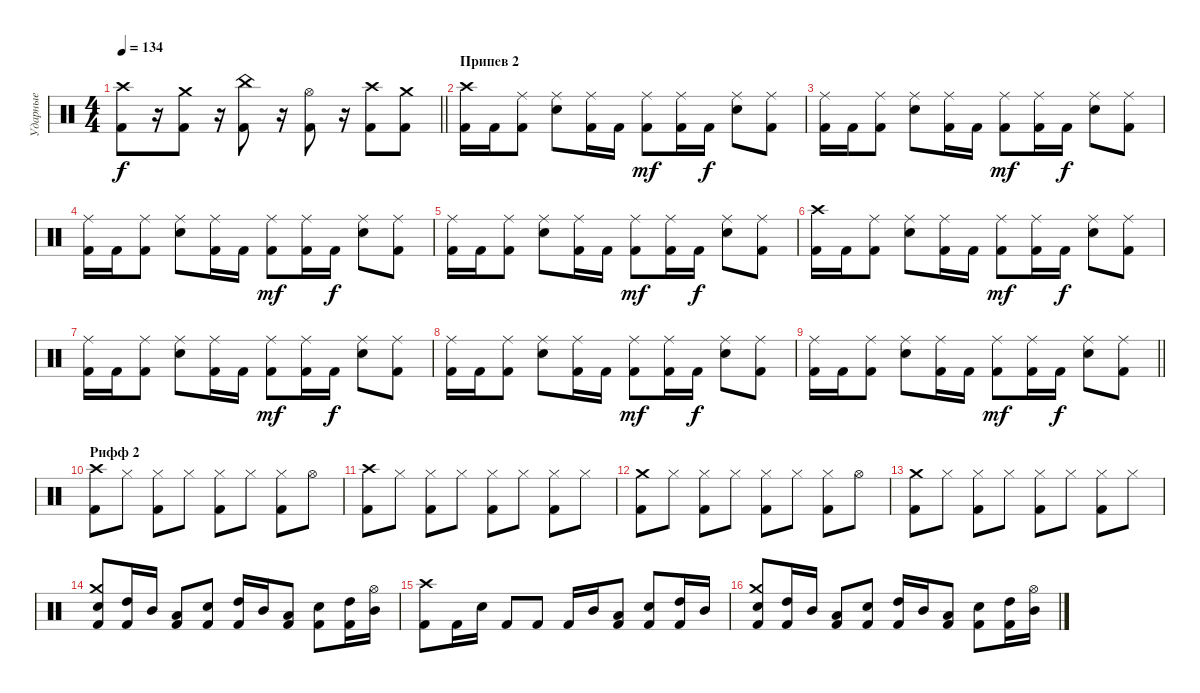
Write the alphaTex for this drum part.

\track ("Ударные" "Ударные") {instrument percussion}
\staff {score}
\articulation defaults
\ts (4 4)
\tempo 134
\clef neutral
\barLineRight lightlight
\ks c
("Crash high (hit)" "Kick (hit) 2").8{dy f} r.16 ("Crash medium (hit)" "Kick (hit) 2").8 r.16 ("China (hit)" "Kick (hit) 2").8 r.16 ("Hi-Hat (open)" "Kick (hit) 2").8 r.16 ("Crash high (hit)" "Kick (hit) 2").8 ("Crash medium (hit)" "Kick (hit) 2").8 |
\section ("" "Припев 2")
("Crash high (hit)" "Kick (hit) 2").16 "Kick (hit) 2".16 ("Ride (middle)" "Kick (hit) 2").8 ("Ride (middle)" "Snare (hit) 2").8 ("Ride (middle)" "Kick (hit) 2").16 "Kick (hit) 2".16 ("Ride (middle)" "Kick (hit) 2").8{dy mf} ("Ride (middle)" "Kick (hit) 2").16 "Kick (hit) 2".16{dy f} ("Ride (middle)" "Snare (hit) 2").8 ("Ride (middle)" "Kick (hit) 2").8 |
("Ride (middle)" "Kick (hit) 2").16 "Kick (hit) 2".16 ("Ride (middle)" "Kick (hit) 2").8 ("Ride (middle)" "Snare (hit) 2").8 ("Ride (middle)" "Kick (hit) 2").16 "Kick (hit) 2".16 ("Ride (middle)" "Kick (hit) 2").8{dy mf} ("Ride (middle)" "Kick (hit) 2").16 "Kick (hit) 2".16{dy f} ("Ride (middle)" "Snare (hit) 2").8 ("Ride (middle)" "Kick (hit) 2").8 |
("Ride (middle)" "Kick (hit) 2").16 "Kick (hit) 2".16 ("Ride (middle)" "Kick (hit) 2").8 ("Ride (middle)" "Snare (hit) 2").8 ("Ride (middle)" "Kick (hit) 2").16 "Kick (hit) 2".16 ("Ride (middle)" "Kick (hit) 2").8{dy mf} ("Ride (middle)" "Kick (hit) 2").16 "Kick (hit) 2".16{dy f} ("Ride (middle)" "Snare (hit) 2").8 ("Ride (middle)" "Kick (hit) 2").8 |
("Ride (middle)" "Kick (hit) 2").16 "Kick (hit) 2".16 ("Ride (middle)" "Kick (hit) 2").8 ("Ride (middle)" "Snare (hit) 2").8 ("Ride (middle)" "Kick (hit) 2").16 "Kick (hit) 2".16 ("Ride (middle)" "Kick (hit) 2").8{dy mf} ("Ride (middle)" "Kick (hit) 2").16 "Kick (hit) 2".16{dy f} ("Ride (middle)" "Snare (hit) 2").8 ("Ride (middle)" "Kick (hit) 2").8 |
("Crash high (hit)" "Kick (hit) 2").16 "Kick (hit) 2".16 ("Ride (middle)" "Kick (hit) 2").8 ("Ride (middle)" "Snare (hit) 2").8 ("Ride (middle)" "Kick (hit) 2").16 "Kick (hit) 2".16 ("Ride (middle)" "Kick (hit) 2").8{dy mf} ("Ride (middle)" "Kick (hit) 2").16 "Kick (hit) 2".16{dy f} ("Ride (middle)" "Snare (hit) 2").8 ("Ride (middle)" "Kick (hit) 2").8 |
("Ride (middle)" "Kick (hit) 2").16 "Kick (hit) 2".16 ("Ride (middle)" "Kick (hit) 2").8 ("Ride (middle)" "Snare (hit) 2").8 ("Ride (middle)" "Kick (hit) 2").16 "Kick (hit) 2".16 ("Ride (middle)" "Kick (hit) 2").8{dy mf} ("Ride (middle)" "Kick (hit) 2").16 "Kick (hit) 2".16{dy f} ("Ride (middle)" "Snare (hit) 2").8 ("Ride (middle)" "Kick (hit) 2").8 |
("Ride (middle)" "Kick (hit) 2").16 "Kick (hit) 2".16 ("Ride (middle)" "Kick (hit) 2").8 ("Ride (middle)" "Snare (hit) 2").8 ("Ride (middle)" "Kick (hit) 2").16 "Kick (hit) 2".16 ("Ride (middle)" "Kick (hit) 2").8{dy mf} ("Ride (middle)" "Kick (hit) 2").16 "Kick (hit) 2".16{dy f} ("Ride (middle)" "Snare (hit) 2").8 ("Ride (middle)" "Kick (hit) 2").8 |
\barLineRight lightlight
("Ride (middle)" "Kick (hit) 2").16 "Kick (hit) 2".16 ("Ride (middle)" "Kick (hit) 2").8 ("Ride (middle)" "Snare (hit) 2").8 ("Ride (middle)" "Kick (hit) 2").16 "Kick (hit) 2".16 ("Ride (middle)" "Kick (hit) 2").8{dy mf} ("Ride (middle)" "Kick (hit) 2").16 "Kick (hit) 2".16{dy f} ("Ride (middle)" "Snare (hit) 2").8 ("Ride (middle)" "Kick (hit) 2").8 |
\section ("" "Рифф 2")
("Crash high (hit)" "Kick (hit) 2").8 "Hi-Hat (closed)".8 ("Hi-Hat (closed)" "Kick (hit) 2").8 "Hi-Hat (closed)".8 ("Hi-Hat (closed)" "Kick (hit) 2").8 "Hi-Hat (closed)".8 ("Hi-Hat (closed)" "Kick (hit) 2").8 "Hi-Hat (open)".8 |
("Crash high (hit)" "Kick (hit) 2").8 "Hi-Hat (closed)".8 ("Hi-Hat (closed)" "Kick (hit) 2").8 "Hi-Hat (closed)".8 ("Hi-Hat (closed)" "Kick (hit) 2").8 "Hi-Hat (closed)".8 ("Hi-Hat (closed)" "Kick (hit) 2").8 "Hi-Hat (closed)".8 |
("Crash medium (hit)" "Kick (hit) 2").8 "Hi-Hat (closed)".8 ("Hi-Hat (closed)" "Kick (hit) 2").8 "Hi-Hat (closed)".8 ("Hi-Hat (closed)" "Kick (hit) 2").8 "Hi-Hat (closed)".8 ("Hi-Hat (closed)" "Kick (hit) 2").8 "Hi-Hat (open)".8 |
("Crash medium (hit)" "Kick (hit) 2").8 "Hi-Hat (closed)".8 ("Hi-Hat (closed)" "Kick (hit) 2").8 "Hi-Hat (closed)".8 ("Hi-Hat (closed)" "Kick (hit) 2").8 "Hi-Hat (closed)".8 ("Hi-Hat (closed)" "Kick (hit) 2").8 "Hi-Hat (closed)".8 |
("Crash medium (hit)" "Snare (hit) 2" "Kick (hit) 2").8 ("High Tom (hit)" "Kick (hit) 2").16 "Mid Tom (hit)".16 ("Low Tom (hit)" "Kick (hit) 2").8 ("Snare (hit) 2" "Kick (hit) 2").8 ("High Tom (hit)" "Kick (hit) 2").16 "Mid Tom (hit)".16 ("Low Tom (hit)" "Kick (hit) 2").8 ("Snare (hit) 2" "Kick (hit) 2").8 ("High Tom (hit)" "Kick (hit) 2").16 ("Hi-Hat (open)" "Mid Tom (hit)").16 |
("Crash high (hit)" "Kick (hit) 2").8 "Kick (hit) 2".16 "Snare (hit) 2".16 "Kick (hit) 2".8 "Kick (hit) 2".8 "Kick (hit) 2".16 "Mid Tom (hit)".16 ("Low Tom (hit)" "Kick (hit) 2").8 ("Snare (hit) 2" "Kick (hit) 2").8 ("High Tom (hit)" "Kick (hit) 2").16 "Mid Tom (hit)".16 |
("Crash medium (hit)" "Snare (hit) 2" "Kick (hit) 2").8 ("High Tom (hit)" "Kick (hit) 2").16 "Mid Tom (hit)".16 ("Low Tom (hit)" "Kick (hit) 2").8 ("Snare (hit) 2" "Kick (hit) 2").8 ("High Tom (hit)" "Kick (hit) 2").16 "Mid Tom (hit)".16 ("Low Tom (hit)" "Kick (hit) 2").8 ("Snare (hit) 2" "Kick (hit) 2").8 ("High Tom (hit)" "Kick (hit) 2").16 ("Hi-Hat (open)" "Mid Tom (hit)").16
